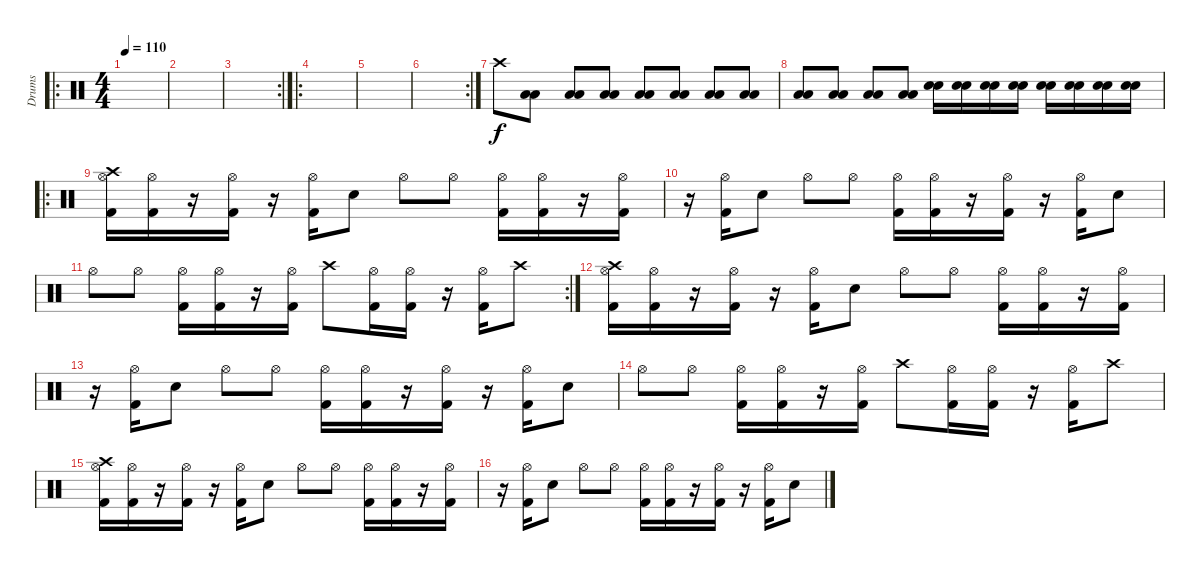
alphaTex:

\track ("Drums" "Drums") {instrument percussion}
\staff {score}
\articulation defaults
\ro
\ts (4 4)
\tempo 110
\clef neutral
\ks c
|
|
\rc 2
|
\ro
|
|
\rc 2
|
"Crash high (hit)".8 ("Low Tom (hit)" "Low Tom (hit)").8 ("Low Tom (hit)" "Low Tom (hit)").8 ("Low Tom (hit)" "Low Tom (hit)").8 ("Low Tom (hit)" "Low Tom (hit)").8 ("Low Tom (hit)" "Low Tom (hit)").8 ("Low Tom (hit)" "Low Tom (hit)").8 ("Low Tom (hit)" "Low Tom (hit)").8 |
("Low Tom (hit)" "Low Tom (hit)").8 ("Low Tom (hit)" "Low Tom (hit)").8 ("Low Tom (hit)" "Low Tom (hit)").8 ("Low Tom (hit)" "Low Tom (hit)").8 ("Electric Snare (hit)" "Electric Snare (hit)").16 ("Electric Snare (hit)" "Electric Snare (hit)").16 ("Electric Snare (hit)" "Electric Snare (hit)").16 ("Electric Snare (hit)" "Electric Snare (hit)").16 ("Electric Snare (hit)" "Electric Snare (hit)").16 ("Electric Snare (hit)" "Electric Snare (hit)").16 ("Electric Snare (hit)" "Electric Snare (hit)").16 ("Electric Snare (hit)" "Electric Snare (hit)").16 |
\ro
("Crash high (hit)" "Hi-Hat (open)" "Kick (hit) 2").16 ("Hi-Hat (open)" "Kick (hit) 2").16 r.16 ("Hi-Hat (open)" "Kick (hit) 2").16 r.16 ("Hi-Hat (open)" "Kick (hit) 2").16 "Electric Snare (hit)".8 "Hi-Hat (open)".8 "Hi-Hat (open)".8 ("Hi-Hat (open)" "Kick (hit) 2").16 ("Hi-Hat (open)" "Kick (hit) 2").16 r.16 ("Hi-Hat (open)" "Kick (hit) 2").16 |
r.16 ("Hi-Hat (open)" "Kick (hit) 2").16 "Electric Snare (hit)".8 "Hi-Hat (open)".8 "Hi-Hat (open)".8 ("Hi-Hat (open)" "Kick (hit) 2").16 ("Hi-Hat (open)" "Kick (hit) 2").16 r.16 ("Hi-Hat (open)" "Kick (hit) 2").16 r.16 ("Hi-Hat (open)" "Kick (hit) 2").16 "Electric Snare (hit)".8 |
\rc 2 "Hi-Hat (open)".8 "Hi-Hat (open)".8
("Hi-Hat (open)" "Kick (hit) 2").16 ("Hi-Hat (open)" "Kick (hit) 2").16 r.16 ("Hi-Hat (open)" "Kick (hit) 2").16 "Crash high (hit)".8 ("Hi-Hat (open)" "Kick (hit) 2").16 ("Hi-Hat (open)" "Kick (hit) 2").16 r.16 ("Hi-Hat (open)" "Kick (hit) 2").16 "Crash high (hit)".8 |
("Crash high (hit)" "Hi-Hat (open)" "Kick (hit) 2").16 ("Hi-Hat (open)" "Kick (hit) 2").16 r.16 ("Hi-Hat (open)" "Kick (hit) 2").16 r.16 ("Hi-Hat (open)" "Kick (hit) 2").16 "Electric Snare (hit)".8 "Hi-Hat (open)".8 "Hi-Hat (open)".8 ("Hi-Hat (open)" "Kick (hit) 2").16 ("Hi-Hat (open)" "Kick (hit) 2").16 r.16 ("Hi-Hat (open)" "Kick (hit) 2").16 |
r.16 ("Hi-Hat (open)" "Kick (hit) 2").16 "Electric Snare (hit)".8 "Hi-Hat (open)".8 "Hi-Hat (open)".8 ("Hi-Hat (open)" "Kick (hit) 2").16 ("Hi-Hat (open)" "Kick (hit) 2").16 r.16 ("Hi-Hat (open)" "Kick (hit) 2").16 r.16 ("Hi-Hat (open)" "Kick (hit) 2").16 "Electric Snare (hit)".8 |
"Hi-Hat (open)".8 "Hi-Hat (open)".8 ("Hi-Hat (open)" "Kick (hit) 2").16 ("Hi-Hat (open)" "Kick (hit) 2").16 r.16 ("Hi-Hat (open)" "Kick (hit) 2").16 "Crash high (hit)".8 ("Hi-Hat (open)" "Kick (hit) 2").16 ("Hi-Hat (open)" "Kick (hit) 2").16 r.16 ("Hi-Hat (open)" "Kick (hit) 2").16 "Crash high (hit)".8 |
("Crash high (hit)" "Hi-Hat (open)" "Kick (hit) 2").16 ("Hi-Hat (open)" "Kick (hit) 2").16 r.16 ("Hi-Hat (open)" "Kick (hit) 2").16 r.16 ("Hi-Hat (open)" "Kick (hit) 2").16 "Electric Snare (hit)".8 "Hi-Hat (open)".8 "Hi-Hat (open)".8 ("Hi-Hat (open)" "Kick (hit) 2").16 ("Hi-Hat (open)" "Kick (hit) 2").16 r.16 ("Hi-Hat (open)" "Kick (hit) 2").16 |
r.16 ("Hi-Hat (open)" "Kick (hit) 2").16 "Electric Snare (hit)".8 "Hi-Hat (open)".8 "Hi-Hat (open)".8 ("Hi-Hat (open)" "Kick (hit) 2").16 ("Hi-Hat (open)" "Kick (hit) 2").16 r.16 ("Hi-Hat (open)" "Kick (hit) 2").16 r.16 ("Hi-Hat (open)" "Kick (hit) 2").16 "Electric Snare (hit)".8
